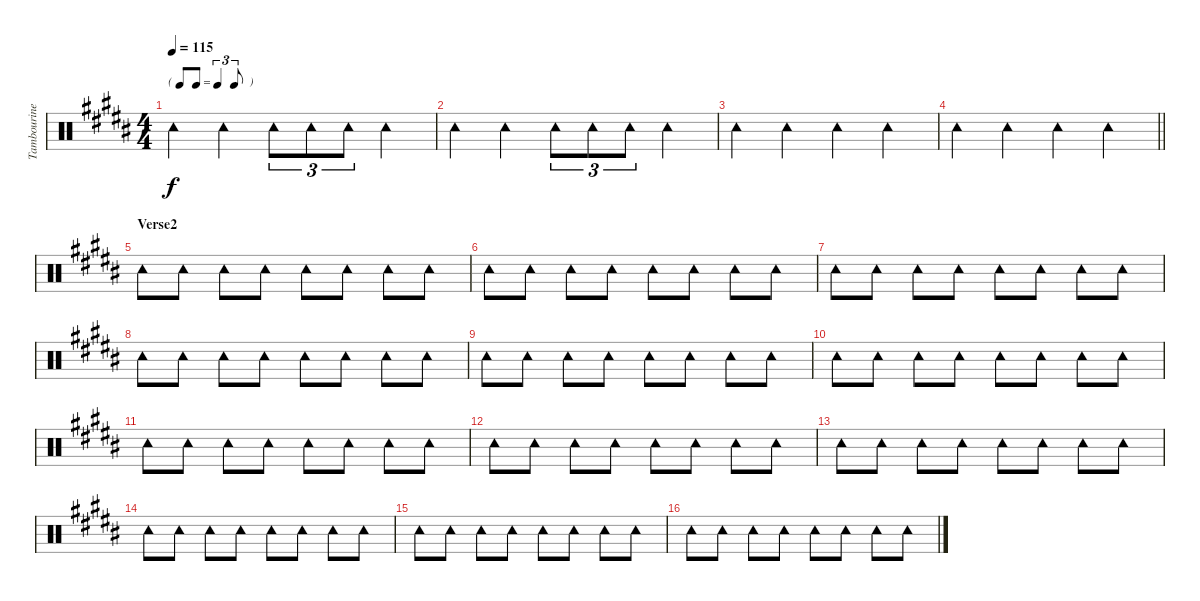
\track ("Tambourine" "Tambourine") {instrument percussion}
\staff {score}
\articulation defaults
\ts (4 4)
\tf triplet8th
\tempo 115
\clef neutral
\ks b "Tambourine (hit)".4{dy f} "Tambourine (hit)".4 "Tambourine (hit)".8{tu (3 2)} "Tambourine (hit)".8{tu (3 2)} "Tambourine (hit)".8{tu (3 2)} "Tambourine (hit)".4
|
"Tambourine (hit)".4 "Tambourine (hit)".4 "Tambourine (hit)".8{tu (3 2)} "Tambourine (hit)".8{tu (3 2)} "Tambourine (hit)".8{tu (3 2)} "Tambourine (hit)".4 |
"Tambourine (hit)".4 "Tambourine (hit)".4 "Tambourine (hit)".4 "Tambourine (hit)".4 |
\barLineRight lightlight "Tambourine (hit)".4 "Tambourine (hit)".4 "Tambourine (hit)".4 "Tambourine (hit)".4
|
\section ("" "Verse2")
"Tambourine (hit)".8 "Tambourine (hit)".8 "Tambourine (hit)".8 "Tambourine (hit)".8 "Tambourine (hit)".8 "Tambourine (hit)".8 "Tambourine (hit)".8 "Tambourine (hit)".8 |
"Tambourine (hit)".8 "Tambourine (hit)".8 "Tambourine (hit)".8 "Tambourine (hit)".8 "Tambourine (hit)".8 "Tambourine (hit)".8 "Tambourine (hit)".8 "Tambourine (hit)".8 |
"Tambourine (hit)".8 "Tambourine (hit)".8 "Tambourine (hit)".8 "Tambourine (hit)".8 "Tambourine (hit)".8 "Tambourine (hit)".8 "Tambourine (hit)".8 "Tambourine (hit)".8 |
"Tambourine (hit)".8 "Tambourine (hit)".8 "Tambourine (hit)".8 "Tambourine (hit)".8 "Tambourine (hit)".8 "Tambourine (hit)".8 "Tambourine (hit)".8 "Tambourine (hit)".8 |
"Tambourine (hit)".8 "Tambourine (hit)".8 "Tambourine (hit)".8 "Tambourine (hit)".8 "Tambourine (hit)".8 "Tambourine (hit)".8 "Tambourine (hit)".8 "Tambourine (hit)".8 |
"Tambourine (hit)".8 "Tambourine (hit)".8 "Tambourine (hit)".8 "Tambourine (hit)".8 "Tambourine (hit)".8 "Tambourine (hit)".8 "Tambourine (hit)".8 "Tambourine (hit)".8 |
"Tambourine (hit)".8 "Tambourine (hit)".8 "Tambourine (hit)".8 "Tambourine (hit)".8 "Tambourine (hit)".8 "Tambourine (hit)".8 "Tambourine (hit)".8 "Tambourine (hit)".8 |
"Tambourine (hit)".8 "Tambourine (hit)".8 "Tambourine (hit)".8 "Tambourine (hit)".8 "Tambourine (hit)".8 "Tambourine (hit)".8 "Tambourine (hit)".8 "Tambourine (hit)".8 |
"Tambourine (hit)".8 "Tambourine (hit)".8 "Tambourine (hit)".8 "Tambourine (hit)".8 "Tambourine (hit)".8 "Tambourine (hit)".8 "Tambourine (hit)".8 "Tambourine (hit)".8 |
"Tambourine (hit)".8 "Tambourine (hit)".8 "Tambourine (hit)".8 "Tambourine (hit)".8 "Tambourine (hit)".8 "Tambourine (hit)".8 "Tambourine (hit)".8 "Tambourine (hit)".8 |
"Tambourine (hit)".8 "Tambourine (hit)".8 "Tambourine (hit)".8 "Tambourine (hit)".8 "Tambourine (hit)".8 "Tambourine (hit)".8 "Tambourine (hit)".8 "Tambourine (hit)".8 |
"Tambourine (hit)".8 "Tambourine (hit)".8 "Tambourine (hit)".8 "Tambourine (hit)".8 "Tambourine (hit)".8 "Tambourine (hit)".8 "Tambourine (hit)".8 "Tambourine (hit)".8
